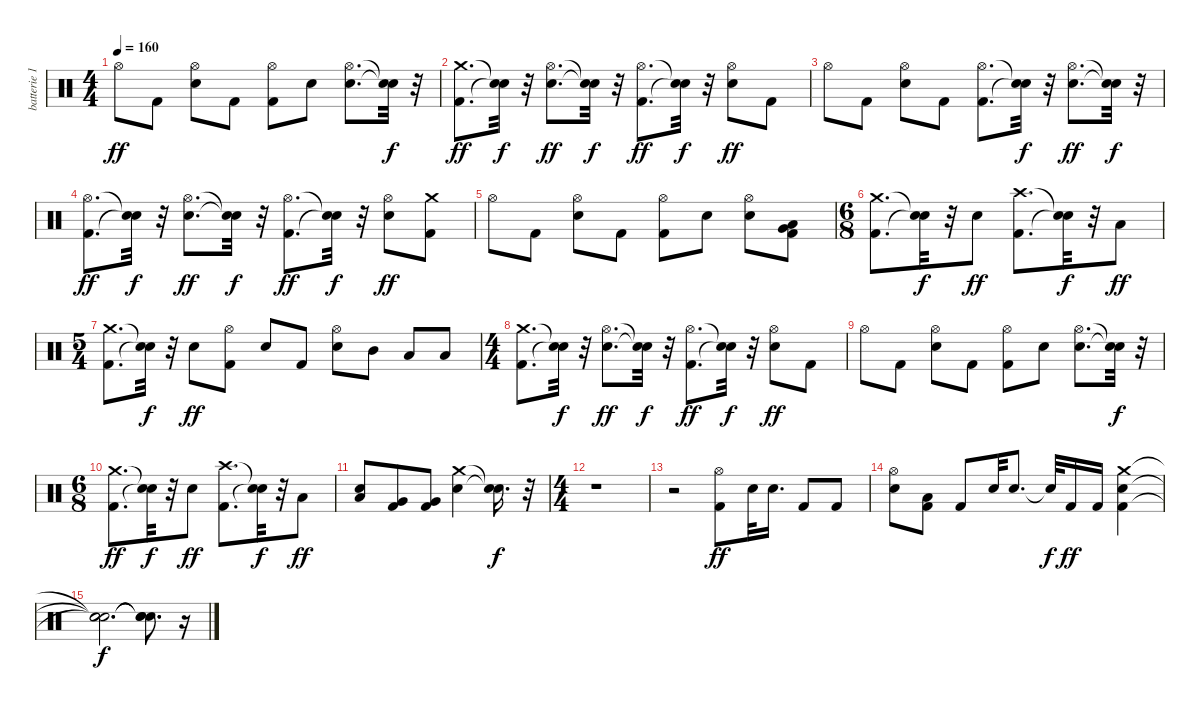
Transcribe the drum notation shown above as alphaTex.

\track ("batterie 1" "batterie 1") {instrument percussion}
\staff {score}
\articulation defaults
\ts (4 4)
\tempo 160
\clef neutral
\ks c "Hi-Hat (open)".8{dy ff} "Kick (hit) 2".8
("Electric Snare (hit)" "Hi-Hat (open)").8 "Kick (hit) 2".8 ("Kick (hit) 2" "Hi-Hat (open)").8 "Electric Snare (hit)".8 ("Electric Snare (hit)" "Hi-Hat (open)").8{d} ("Snare (hit)"{t} "Snare (hit)"{t}).32{dy f} r.32 |
("Kick (hit) 2" "Crash medium (hit)").8{d dy ff} ("Snare (hit)"{t} "Snare (hit)"{t}).32{dy f} r.32 ("Electric Snare (hit)" "Hi-Hat (open)").8{d dy ff} ("Snare (hit)"{t} "Snare (hit)"{t}).32{dy f} r.32 ("Kick (hit) 2" "Hi-Hat (open)").8{d dy ff} ("Snare (hit)"{t} "Snare (hit)"{t}).32{dy f} r.32 ("Electric Snare (hit)" "Hi-Hat (open)").8{dy ff} "Kick (hit) 2".8 |
"Hi-Hat (open)".8 "Kick (hit) 2".8 ("Electric Snare (hit)" "Hi-Hat (open)").8 "Kick (hit) 2".8 ("Kick (hit) 2" "Hi-Hat (open)").8{d} ("Snare (hit)"{t} "Snare (hit)"{t}).32{dy f} r.32 ("Electric Snare (hit)" "Hi-Hat (open)").8{d dy ff} ("Snare (hit)"{t} "Snare (hit)"{t}).32{dy f} r.32 |
("Kick (hit) 2" "Hi-Hat (open)").8{d dy ff} ("Snare (hit)"{t} "Snare (hit)"{t}).32{dy f} r.32 ("Electric Snare (hit)" "Hi-Hat (open)").8{d dy ff} ("Snare (hit)"{t} "Snare (hit)"{t}).32{dy f} r.32 ("Kick (hit) 2" "Hi-Hat (open)").8{d dy ff} ("Snare (hit)"{t} "Snare (hit)"{t}).32{dy f} r.32 ("Electric Snare (hit)" "Hi-Hat (open)").8{dy ff} ("Kick (hit) 2" "Crash medium (hit)").8 |
"Hi-Hat (open)".8 "Kick (hit) 2".8 ("Electric Snare (hit)" "Hi-Hat (open)").8 "Kick (hit) 2".8 ("Kick (hit) 2" "Hi-Hat (open)").8 "Electric Snare (hit)".8 ("Electric Snare (hit)" "Hi-Hat (open)").8 ("Kick (hit) 2" "Low Floor Tom (hit)" "Very Low Tom (hit)").8 |
\ts (6 8)
("Kick (hit) 2" "Crash medium (hit)").8{d} ("Snare (hit)"{t} "Snare (hit)"{t}).32{dy f} r.32 "Electric Snare (hit)".8{dy ff} ("Kick (hit) 2" "Crash high (hit)").8{d} ("Snare (hit)"{t} "Snare (hit)"{t}).32{dy f} r.32 "Low Tom (hit)".8{dy ff} |
\ts (5 4)
("Kick (hit) 2" "Crash medium (hit)").8{d} ("Snare (hit)"{t} "Snare (hit)"{t}).32{dy f} r.32 "Electric Snare (hit)".8{dy ff} ("Kick (hit) 2" "Hi-Hat (open)").8 "Electric Snare (hit)".8 "Kick (hit) 2".8 ("Electric Snare (hit)" "Hi-Hat (open)").8 "Mid Tom (hit)".8 "Low Tom (hit)".8 "Low Floor Tom (hit)".8 |
\ts (4 4)
("Kick (hit) 2" "Crash medium (hit)").8{d} ("Snare (hit)"{t} "Snare (hit)"{t}).32{dy f} r.32 ("Electric Snare (hit)" "Hi-Hat (open)").8{d dy ff} ("Snare (hit)"{t} "Snare (hit)"{t}).32{dy f} r.32 ("Kick (hit) 2" "Hi-Hat (open)").8{d dy ff} ("Snare (hit)"{t} "Snare (hit)"{t}).32{dy f} r.32 ("Electric Snare (hit)" "Hi-Hat (open)").8{dy ff} "Kick (hit) 2".8 |
"Hi-Hat (open)".8 "Kick (hit) 2".8 ("Electric Snare (hit)" "Hi-Hat (open)").8 "Kick (hit) 2".8 ("Kick (hit) 2" "Hi-Hat (open)").8 "Electric Snare (hit)".8 ("Electric Snare (hit)" "Hi-Hat (open)").8{d} ("Snare (hit)"{t} "Snare (hit)"{t}).32{dy f} r.32 |
\ts (6 8)
("Kick (hit) 2" "Crash medium (hit)").8{d dy ff} ("Snare (hit)"{t} "Snare (hit)"{t}).32{dy f} r.32 "Electric Snare (hit)".8{dy ff} ("Kick (hit) 2" "Crash high (hit)").8{d} ("Snare (hit)"{t} "Snare (hit)"{t}).32{dy f} r.32 "Low Tom (hit)".8{dy ff} |
("Electric Snare (hit)" "Low Tom (hit)").8 ("Kick (hit) 2" "Very Low Tom (hit)").8 ("Kick (hit) 2" "Very Low Tom (hit)").8 ("Electric Snare (hit)" "Crash medium (hit)").4 ("Snare (hit)"{t} "Snare (hit)"{t}).16{d dy f} r.32 |
\ts (4 4)
r.1 |
r.2 ("Kick (hit) 2" "Hi-Hat (open)").8{dy ff} "Electric Snare (hit)".32 "Electric Snare (hit)".16{d} "Kick (hit) 2".8 "Kick (hit) 2".8 |
("Electric Snare (hit)" "Hi-Hat (open)").8 ("Kick (hit) 2" "Low Floor Tom (hit)").8 "Kick (hit) 2".8 "Electric Snare (hit)".32 "Electric Snare (hit)".8{d} "Snare (hit)"{t}.32{dy f} "Kick (hit) 2".16{dy ff} "Kick (hit) 2".16 ("Kick (hit) 2" "Electric Snare (hit)" "Crash medium (hit)").4 |
("Snare (hit)"{t} "Snare (hit)"{t} "Snare (hit)"{t}).2{d dy f} ("Snare (hit)"{t} "Snare (hit)"{t} "Snare (hit)"{t}).8{d} r.16
